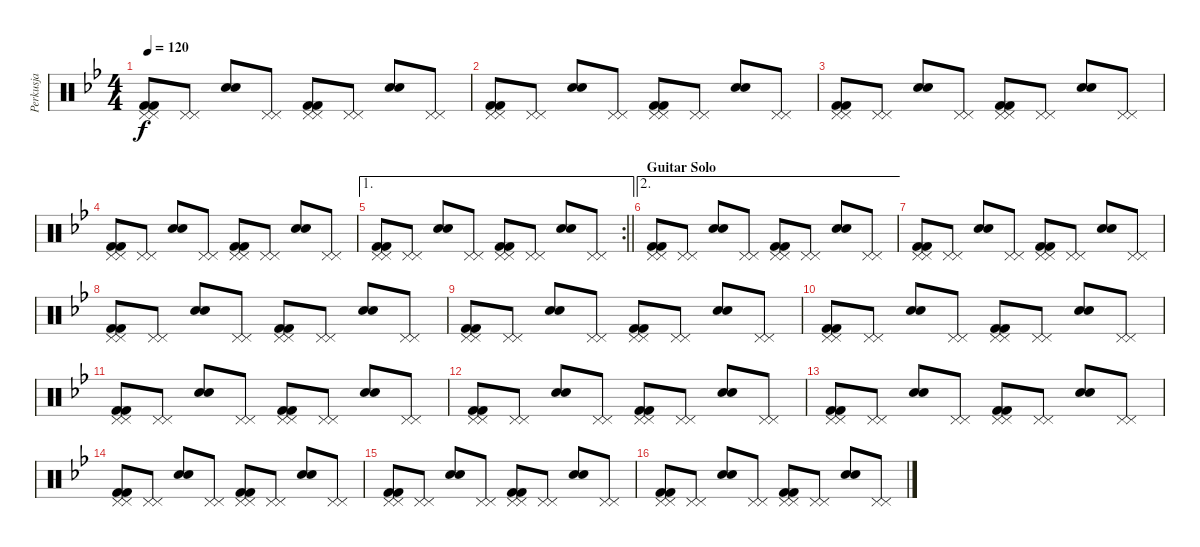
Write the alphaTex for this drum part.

\track ("Perkusja" "Perkusja") {instrument percussion}
\staff {score}
\articulation defaults
\ts (4 4)
\tempo 120
\clef neutral
\ks bb
("Pedal Hi-Hat (hit)" "Pedal Hi-Hat (hit)" "Kick (hit) 2" "Kick (hit) 2").8{dy f} ("Pedal Hi-Hat (hit)" "Pedal Hi-Hat (hit)").8 ("Snare (hit) 2" "Snare (hit) 2").8 ("Pedal Hi-Hat (hit)" "Pedal Hi-Hat (hit)").8 ("Pedal Hi-Hat (hit)" "Pedal Hi-Hat (hit)" "Kick (hit) 2" "Kick (hit) 2").8 ("Pedal Hi-Hat (hit)" "Pedal Hi-Hat (hit)").8 ("Snare (hit) 2" "Snare (hit) 2").8 ("Pedal Hi-Hat (hit)" "Pedal Hi-Hat (hit)").8 |
("Pedal Hi-Hat (hit)" "Pedal Hi-Hat (hit)" "Kick (hit) 2" "Kick (hit) 2").8 ("Pedal Hi-Hat (hit)" "Pedal Hi-Hat (hit)").8 ("Snare (hit) 2" "Snare (hit) 2").8 ("Pedal Hi-Hat (hit)" "Pedal Hi-Hat (hit)").8 ("Pedal Hi-Hat (hit)" "Pedal Hi-Hat (hit)" "Kick (hit) 2" "Kick (hit) 2").8 ("Pedal Hi-Hat (hit)" "Pedal Hi-Hat (hit)").8 ("Snare (hit) 2" "Snare (hit) 2").8 ("Pedal Hi-Hat (hit)" "Pedal Hi-Hat (hit)").8 |
("Pedal Hi-Hat (hit)" "Pedal Hi-Hat (hit)" "Kick (hit) 2" "Kick (hit) 2").8 ("Pedal Hi-Hat (hit)" "Pedal Hi-Hat (hit)").8 ("Snare (hit) 2" "Snare (hit) 2").8 ("Pedal Hi-Hat (hit)" "Pedal Hi-Hat (hit)").8 ("Pedal Hi-Hat (hit)" "Pedal Hi-Hat (hit)" "Kick (hit) 2" "Kick (hit) 2").8 ("Pedal Hi-Hat (hit)" "Pedal Hi-Hat (hit)").8 ("Snare (hit) 2" "Snare (hit) 2").8 ("Pedal Hi-Hat (hit)" "Pedal Hi-Hat (hit)").8 |
("Pedal Hi-Hat (hit)" "Pedal Hi-Hat (hit)" "Kick (hit) 2" "Kick (hit) 2").8 ("Pedal Hi-Hat (hit)" "Pedal Hi-Hat (hit)").8 ("Snare (hit) 2" "Snare (hit) 2").8 ("Pedal Hi-Hat (hit)" "Pedal Hi-Hat (hit)").8 ("Pedal Hi-Hat (hit)" "Pedal Hi-Hat (hit)" "Kick (hit) 2" "Kick (hit) 2").8 ("Pedal Hi-Hat (hit)" "Pedal Hi-Hat (hit)").8 ("Snare (hit) 2" "Snare (hit) 2").8 ("Pedal Hi-Hat (hit)" "Pedal Hi-Hat (hit)").8 |
\ae 1
\rc 2
\barLineRight lightlight
("Pedal Hi-Hat (hit)" "Pedal Hi-Hat (hit)" "Kick (hit) 2" "Kick (hit) 2").8 ("Pedal Hi-Hat (hit)" "Pedal Hi-Hat (hit)").8 ("Snare (hit) 2" "Snare (hit) 2").8 ("Pedal Hi-Hat (hit)" "Pedal Hi-Hat (hit)").8 ("Pedal Hi-Hat (hit)" "Pedal Hi-Hat (hit)" "Kick (hit) 2" "Kick (hit) 2").8 ("Pedal Hi-Hat (hit)" "Pedal Hi-Hat (hit)").8 ("Snare (hit) 2" "Snare (hit) 2").8 ("Pedal Hi-Hat (hit)" "Pedal Hi-Hat (hit)").8 |
\ae 2
\section ("" "Guitar Solo")
("Pedal Hi-Hat (hit)" "Pedal Hi-Hat (hit)" "Kick (hit) 2" "Kick (hit) 2").8 ("Pedal Hi-Hat (hit)" "Pedal Hi-Hat (hit)").8 ("Snare (hit) 2" "Snare (hit) 2").8 ("Pedal Hi-Hat (hit)" "Pedal Hi-Hat (hit)").8 ("Pedal Hi-Hat (hit)" "Pedal Hi-Hat (hit)" "Kick (hit) 2" "Kick (hit) 2").8 ("Pedal Hi-Hat (hit)" "Pedal Hi-Hat (hit)").8 ("Snare (hit) 2" "Snare (hit) 2").8 ("Pedal Hi-Hat (hit)" "Pedal Hi-Hat (hit)").8 |
("Pedal Hi-Hat (hit)" "Pedal Hi-Hat (hit)" "Kick (hit) 2" "Kick (hit) 2").8 ("Pedal Hi-Hat (hit)" "Pedal Hi-Hat (hit)").8 ("Snare (hit) 2" "Snare (hit) 2").8 ("Pedal Hi-Hat (hit)" "Pedal Hi-Hat (hit)").8 ("Pedal Hi-Hat (hit)" "Pedal Hi-Hat (hit)" "Kick (hit) 2" "Kick (hit) 2").8 ("Pedal Hi-Hat (hit)" "Pedal Hi-Hat (hit)").8 ("Snare (hit) 2" "Snare (hit) 2").8 ("Pedal Hi-Hat (hit)" "Pedal Hi-Hat (hit)").8 |
("Pedal Hi-Hat (hit)" "Pedal Hi-Hat (hit)" "Kick (hit) 2" "Kick (hit) 2").8 ("Pedal Hi-Hat (hit)" "Pedal Hi-Hat (hit)").8 ("Snare (hit) 2" "Snare (hit) 2").8 ("Pedal Hi-Hat (hit)" "Pedal Hi-Hat (hit)").8 ("Pedal Hi-Hat (hit)" "Pedal Hi-Hat (hit)" "Kick (hit) 2" "Kick (hit) 2").8 ("Pedal Hi-Hat (hit)" "Pedal Hi-Hat (hit)").8 ("Snare (hit) 2" "Snare (hit) 2").8 ("Pedal Hi-Hat (hit)" "Pedal Hi-Hat (hit)").8 |
("Pedal Hi-Hat (hit)" "Pedal Hi-Hat (hit)" "Kick (hit) 2" "Kick (hit) 2").8 ("Pedal Hi-Hat (hit)" "Pedal Hi-Hat (hit)").8 ("Snare (hit) 2" "Snare (hit) 2").8 ("Pedal Hi-Hat (hit)" "Pedal Hi-Hat (hit)").8 ("Pedal Hi-Hat (hit)" "Pedal Hi-Hat (hit)" "Kick (hit) 2" "Kick (hit) 2").8 ("Pedal Hi-Hat (hit)" "Pedal Hi-Hat (hit)").8 ("Snare (hit) 2" "Snare (hit) 2").8 ("Pedal Hi-Hat (hit)" "Pedal Hi-Hat (hit)").8 |
("Pedal Hi-Hat (hit)" "Pedal Hi-Hat (hit)" "Kick (hit) 2" "Kick (hit) 2").8 ("Pedal Hi-Hat (hit)" "Pedal Hi-Hat (hit)").8 ("Snare (hit) 2" "Snare (hit) 2").8 ("Pedal Hi-Hat (hit)" "Pedal Hi-Hat (hit)").8 ("Pedal Hi-Hat (hit)" "Pedal Hi-Hat (hit)" "Kick (hit) 2" "Kick (hit) 2").8 ("Pedal Hi-Hat (hit)" "Pedal Hi-Hat (hit)").8 ("Snare (hit) 2" "Snare (hit) 2").8 ("Pedal Hi-Hat (hit)" "Pedal Hi-Hat (hit)").8 |
("Pedal Hi-Hat (hit)" "Pedal Hi-Hat (hit)" "Kick (hit) 2" "Kick (hit) 2").8 ("Pedal Hi-Hat (hit)" "Pedal Hi-Hat (hit)").8 ("Snare (hit) 2" "Snare (hit) 2").8 ("Pedal Hi-Hat (hit)" "Pedal Hi-Hat (hit)").8 ("Pedal Hi-Hat (hit)" "Pedal Hi-Hat (hit)" "Kick (hit) 2" "Kick (hit) 2").8 ("Pedal Hi-Hat (hit)" "Pedal Hi-Hat (hit)").8 ("Snare (hit) 2" "Snare (hit) 2").8 ("Pedal Hi-Hat (hit)" "Pedal Hi-Hat (hit)").8 |
("Pedal Hi-Hat (hit)" "Pedal Hi-Hat (hit)" "Kick (hit) 2" "Kick (hit) 2").8 ("Pedal Hi-Hat (hit)" "Pedal Hi-Hat (hit)").8 ("Snare (hit) 2" "Snare (hit) 2").8 ("Pedal Hi-Hat (hit)" "Pedal Hi-Hat (hit)").8 ("Pedal Hi-Hat (hit)" "Pedal Hi-Hat (hit)" "Kick (hit) 2" "Kick (hit) 2").8 ("Pedal Hi-Hat (hit)" "Pedal Hi-Hat (hit)").8 ("Snare (hit) 2" "Snare (hit) 2").8 ("Pedal Hi-Hat (hit)" "Pedal Hi-Hat (hit)").8 |
("Pedal Hi-Hat (hit)" "Pedal Hi-Hat (hit)" "Kick (hit) 2" "Kick (hit) 2").8 ("Pedal Hi-Hat (hit)" "Pedal Hi-Hat (hit)").8 ("Snare (hit) 2" "Snare (hit) 2").8 ("Pedal Hi-Hat (hit)" "Pedal Hi-Hat (hit)").8 ("Pedal Hi-Hat (hit)" "Pedal Hi-Hat (hit)" "Kick (hit) 2" "Kick (hit) 2").8 ("Pedal Hi-Hat (hit)" "Pedal Hi-Hat (hit)").8 ("Snare (hit) 2" "Snare (hit) 2").8 ("Pedal Hi-Hat (hit)" "Pedal Hi-Hat (hit)").8 |
("Pedal Hi-Hat (hit)" "Pedal Hi-Hat (hit)" "Kick (hit) 2" "Kick (hit) 2").8 ("Pedal Hi-Hat (hit)" "Pedal Hi-Hat (hit)").8 ("Snare (hit) 2" "Snare (hit) 2").8 ("Pedal Hi-Hat (hit)" "Pedal Hi-Hat (hit)").8 ("Pedal Hi-Hat (hit)" "Pedal Hi-Hat (hit)" "Kick (hit) 2" "Kick (hit) 2").8 ("Pedal Hi-Hat (hit)" "Pedal Hi-Hat (hit)").8 ("Snare (hit) 2" "Snare (hit) 2").8 ("Pedal Hi-Hat (hit)" "Pedal Hi-Hat (hit)").8 |
("Pedal Hi-Hat (hit)" "Pedal Hi-Hat (hit)" "Kick (hit) 2" "Kick (hit) 2").8 ("Pedal Hi-Hat (hit)" "Pedal Hi-Hat (hit)").8 ("Snare (hit) 2" "Snare (hit) 2").8 ("Pedal Hi-Hat (hit)" "Pedal Hi-Hat (hit)").8 ("Pedal Hi-Hat (hit)" "Pedal Hi-Hat (hit)" "Kick (hit) 2" "Kick (hit) 2").8 ("Pedal Hi-Hat (hit)" "Pedal Hi-Hat (hit)").8 ("Snare (hit) 2" "Snare (hit) 2").8 ("Pedal Hi-Hat (hit)" "Pedal Hi-Hat (hit)").8 |
("Pedal Hi-Hat (hit)" "Pedal Hi-Hat (hit)" "Kick (hit) 2" "Kick (hit) 2").8 ("Pedal Hi-Hat (hit)" "Pedal Hi-Hat (hit)").8 ("Snare (hit) 2" "Snare (hit) 2").8 ("Pedal Hi-Hat (hit)" "Pedal Hi-Hat (hit)").8 ("Pedal Hi-Hat (hit)" "Pedal Hi-Hat (hit)" "Kick (hit) 2" "Kick (hit) 2").8 ("Pedal Hi-Hat (hit)" "Pedal Hi-Hat (hit)").8 ("Snare (hit) 2" "Snare (hit) 2").8 ("Pedal Hi-Hat (hit)" "Pedal Hi-Hat (hit)").8
